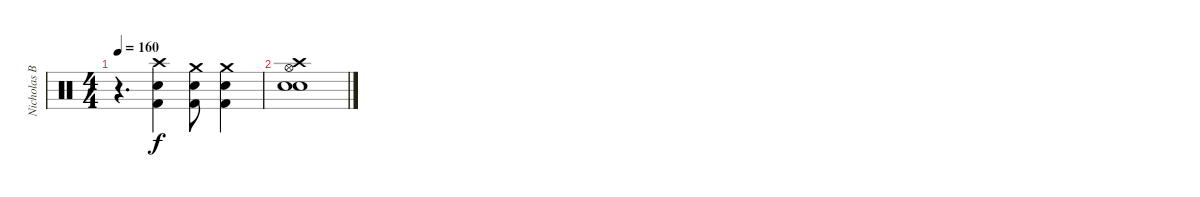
\track ("Nicholas Barker" "Nicholas B") {instrument percussion}
\staff {score}
\articulation defaults
\ts (4 4)
\tempo 160
\clef neutral
\ks c
r.4{d dy f} ("Crash high (hit)" "Snare (hit) 2" "Kick (hit) 2").4 ("Crash medium (hit)" "Snare (hit) 2" "Kick (hit) 2").8 ("Crash medium (hit)" "Snare (hit) 2" "Kick (hit) 2").4 |
("Crash high (hit)" "Hi-Hat (open)" "Snare (hit) 2" "Snare (hit) 2").1
